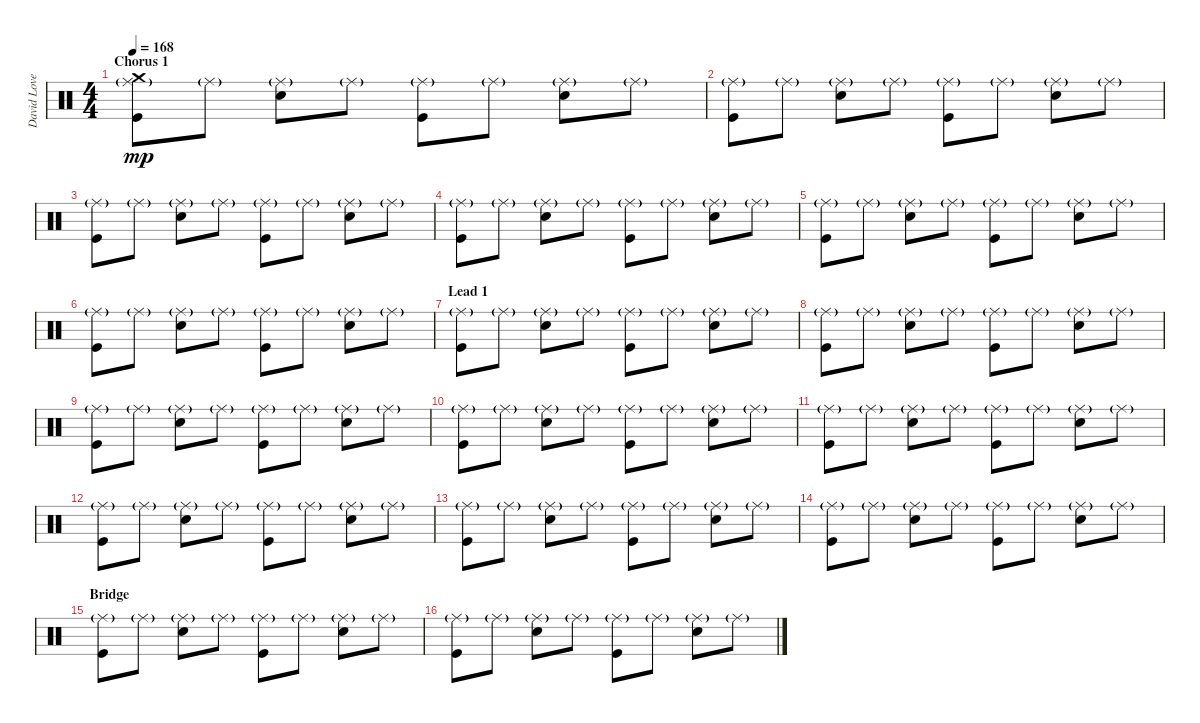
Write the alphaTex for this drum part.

\track ("David Lovering" "David Love") {instrument percussion}
\staff {score}
\articulation defaults
\ts (4 4)
\section ("" "Chorus 1")
\tempo 168
\clef neutral
\ks c
("Ride (middle)"{g} "Crash medium (hit)" "Kick (hit)").8{dy mp} "Ride (middle)"{g}.8 ("Ride (middle)"{g} "Snare (hit) 2").8 "Ride (middle)"{g}.8 ("Ride (middle)"{g} "Kick (hit)").8 "Ride (middle)"{g}.8 ("Ride (middle)"{g} "Snare (hit) 2").8 "Ride (middle)"{g}.8 |
("Ride (middle)"{g} "Kick (hit)").8 "Ride (middle)"{g}.8 ("Ride (middle)"{g} "Snare (hit) 2").8 "Ride (middle)"{g}.8 ("Ride (middle)"{g} "Kick (hit)").8 "Ride (middle)"{g}.8 ("Ride (middle)"{g} "Snare (hit) 2").8 "Ride (middle)"{g}.8 |
("Ride (middle)"{g} "Kick (hit)").8 "Ride (middle)"{g}.8 ("Ride (middle)"{g} "Snare (hit) 2").8 "Ride (middle)"{g}.8 ("Ride (middle)"{g} "Kick (hit)").8 "Ride (middle)"{g}.8 ("Ride (middle)"{g} "Snare (hit) 2").8 "Ride (middle)"{g}.8 |
("Ride (middle)"{g} "Kick (hit)").8 "Ride (middle)"{g}.8 ("Ride (middle)"{g} "Snare (hit) 2").8 "Ride (middle)"{g}.8 ("Ride (middle)"{g} "Kick (hit)").8 "Ride (middle)"{g}.8 ("Ride (middle)"{g} "Snare (hit) 2").8 "Ride (middle)"{g}.8 |
("Ride (middle)"{g} "Kick (hit)").8 "Ride (middle)"{g}.8 ("Ride (middle)"{g} "Snare (hit) 2").8 "Ride (middle)"{g}.8 ("Ride (middle)"{g} "Kick (hit)").8 "Ride (middle)"{g}.8 ("Ride (middle)"{g} "Snare (hit) 2").8 "Ride (middle)"{g}.8 |
("Ride (middle)"{g} "Kick (hit)").8 "Ride (middle)"{g}.8 ("Ride (middle)"{g} "Snare (hit) 2").8 "Ride (middle)"{g}.8 ("Ride (middle)"{g} "Kick (hit)").8 "Ride (middle)"{g}.8 ("Ride (middle)"{g} "Snare (hit) 2").8 "Ride (middle)"{g}.8 |
\section ("" "Lead 1")
("Ride (middle)"{g} "Kick (hit)").8 "Ride (middle)"{g}.8 ("Ride (middle)"{g} "Snare (hit) 2").8 "Ride (middle)"{g}.8 ("Ride (middle)"{g} "Kick (hit)").8 "Ride (middle)"{g}.8 ("Ride (middle)"{g} "Snare (hit) 2").8 "Ride (middle)"{g}.8 |
("Ride (middle)"{g} "Kick (hit)").8 "Ride (middle)"{g}.8 ("Ride (middle)"{g} "Snare (hit) 2").8 "Ride (middle)"{g}.8 ("Ride (middle)"{g} "Kick (hit)").8 "Ride (middle)"{g}.8 ("Ride (middle)"{g} "Snare (hit) 2").8 "Ride (middle)"{g}.8 |
("Ride (middle)"{g} "Kick (hit)").8 "Ride (middle)"{g}.8 ("Ride (middle)"{g} "Snare (hit) 2").8 "Ride (middle)"{g}.8 ("Ride (middle)"{g} "Kick (hit)").8 "Ride (middle)"{g}.8 ("Ride (middle)"{g} "Snare (hit) 2").8 "Ride (middle)"{g}.8 |
("Ride (middle)"{g} "Kick (hit)").8 "Ride (middle)"{g}.8 ("Ride (middle)"{g} "Snare (hit) 2").8 "Ride (middle)"{g}.8 ("Ride (middle)"{g} "Kick (hit)").8 "Ride (middle)"{g}.8 ("Ride (middle)"{g} "Snare (hit) 2").8 "Ride (middle)"{g}.8 |
("Ride (middle)"{g} "Kick (hit)").8 "Ride (middle)"{g}.8 ("Ride (middle)"{g} "Snare (hit) 2").8 "Ride (middle)"{g}.8 ("Ride (middle)"{g} "Kick (hit)").8 "Ride (middle)"{g}.8 ("Ride (middle)"{g} "Snare (hit) 2").8 "Ride (middle)"{g}.8 |
("Ride (middle)"{g} "Kick (hit)").8 "Ride (middle)"{g}.8 ("Ride (middle)"{g} "Snare (hit) 2").8 "Ride (middle)"{g}.8 ("Ride (middle)"{g} "Kick (hit)").8 "Ride (middle)"{g}.8 ("Ride (middle)"{g} "Snare (hit) 2").8 "Ride (middle)"{g}.8 |
("Ride (middle)"{g} "Kick (hit)").8 "Ride (middle)"{g}.8 ("Ride (middle)"{g} "Snare (hit) 2").8 "Ride (middle)"{g}.8 ("Ride (middle)"{g} "Kick (hit)").8 "Ride (middle)"{g}.8 ("Ride (middle)"{g} "Snare (hit) 2").8 "Ride (middle)"{g}.8 |
("Ride (middle)"{g} "Kick (hit)").8 "Ride (middle)"{g}.8 ("Ride (middle)"{g} "Snare (hit) 2").8 "Ride (middle)"{g}.8 ("Ride (middle)"{g} "Kick (hit)").8 "Ride (middle)"{g}.8 ("Ride (middle)"{g} "Snare (hit) 2").8 "Ride (middle)"{g}.8 |
\section ("" "Bridge")
("Ride (middle)"{g} "Kick (hit)").8 "Ride (middle)"{g}.8 ("Ride (middle)"{g} "Snare (hit) 2").8 "Ride (middle)"{g}.8 ("Ride (middle)"{g} "Kick (hit)").8 "Ride (middle)"{g}.8 ("Ride (middle)"{g} "Snare (hit) 2").8 "Ride (middle)"{g}.8 |
("Ride (middle)"{g} "Kick (hit)").8 "Ride (middle)"{g}.8 ("Ride (middle)"{g} "Snare (hit) 2").8 "Ride (middle)"{g}.8 ("Ride (middle)"{g} "Kick (hit)").8 "Ride (middle)"{g}.8 ("Ride (middle)"{g} "Snare (hit) 2").8 "Ride (middle)"{g}.8
